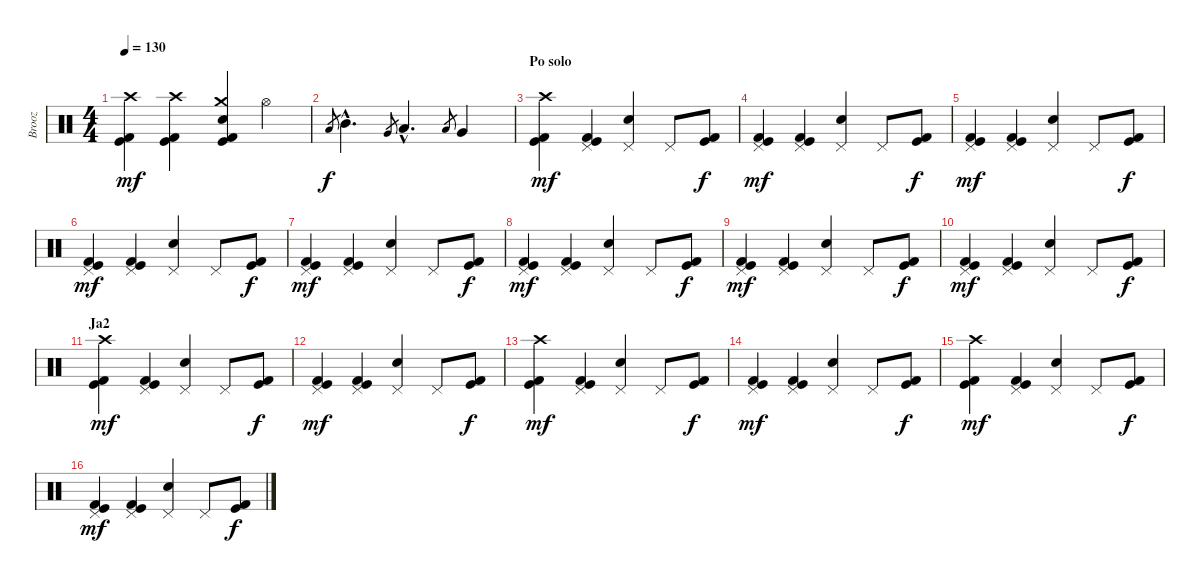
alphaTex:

\track ("Brooz" "Brooz") {instrument percussion}
\staff {score}
\articulation defaults
\ts (4 4)
\tempo 130
\clef neutral
\ks c
("Kick (hit) 2" "Kick (hit)" "Crash high (hit)").4{dy mf} ("Kick (hit) 2" "Kick (hit)" "Crash high (hit)").4 ("Kick (hit) 2" "Kick (hit)" "Crash medium (hit)" "Snare (hit) 2").4 "Hi-Hat (open)".4 |
"Low Tom (hit)".8{gr dy f} "Mid Tom (hit)"{hac}.4{d} "Very Low Tom (hit)".8{gr} "Low Tom (hit)"{hac}.4{d} "Low Floor Tom (hit)".8{gr} "Very Low Tom (hit)".4 |
\section ("" "Po solo")
("Kick (hit) 2" "Kick (hit)" "Crash high (hit)").4{dy mf} ("Pedal Hi-Hat (hit)" "Kick (hit) 2" "Kick (hit)").4 ("Pedal Hi-Hat (hit)" "Snare (hit) 2").4 "Pedal Hi-Hat (hit)".8 ("Kick (hit) 2" "Kick (hit)").8{dy f} |
("Kick (hit) 2" "Kick (hit)" "Pedal Hi-Hat (hit)").4{dy mf} ("Pedal Hi-Hat (hit)" "Kick (hit) 2" "Kick (hit)").4 ("Snare (hit) 2" "Pedal Hi-Hat (hit)").4 "Pedal Hi-Hat (hit)".8 ("Kick (hit) 2" "Kick (hit)").8{dy f} |
("Kick (hit) 2" "Kick (hit)" "Pedal Hi-Hat (hit)").4{dy mf} ("Pedal Hi-Hat (hit)" "Kick (hit) 2" "Kick (hit)").4 ("Pedal Hi-Hat (hit)" "Snare (hit) 2").4 "Pedal Hi-Hat (hit)".8 ("Kick (hit) 2" "Kick (hit)").8{dy f} |
("Kick (hit) 2" "Kick (hit)" "Pedal Hi-Hat (hit)").4{dy mf} ("Pedal Hi-Hat (hit)" "Kick (hit) 2" "Kick (hit)").4 ("Snare (hit) 2" "Pedal Hi-Hat (hit)").4 "Pedal Hi-Hat (hit)".8 ("Kick (hit) 2" "Kick (hit)").8{dy f} |
("Kick (hit) 2" "Kick (hit)" "Pedal Hi-Hat (hit)").4{dy mf} ("Pedal Hi-Hat (hit)" "Kick (hit) 2" "Kick (hit)").4 ("Pedal Hi-Hat (hit)" "Snare (hit) 2").4 "Pedal Hi-Hat (hit)".8 ("Kick (hit) 2" "Kick (hit)").8{dy f} |
("Kick (hit) 2" "Kick (hit)" "Pedal Hi-Hat (hit)").4{dy mf} ("Pedal Hi-Hat (hit)" "Kick (hit) 2" "Kick (hit)").4 ("Snare (hit) 2" "Pedal Hi-Hat (hit)").4 "Pedal Hi-Hat (hit)".8 ("Kick (hit) 2" "Kick (hit)").8{dy f} |
("Kick (hit) 2" "Kick (hit)" "Pedal Hi-Hat (hit)").4{dy mf} ("Pedal Hi-Hat (hit)" "Kick (hit) 2" "Kick (hit)").4 ("Pedal Hi-Hat (hit)" "Snare (hit) 2").4 "Pedal Hi-Hat (hit)".8 ("Kick (hit) 2" "Kick (hit)").8{dy f} |
("Kick (hit) 2" "Kick (hit)" "Pedal Hi-Hat (hit)").4{dy mf} ("Pedal Hi-Hat (hit)" "Kick (hit) 2" "Kick (hit)").4 ("Snare (hit) 2" "Pedal Hi-Hat (hit)").4 "Pedal Hi-Hat (hit)".8 ("Kick (hit) 2" "Kick (hit)").8{dy f} |
\section ("" "Ja2")
("Kick (hit) 2" "Kick (hit)" "Crash high (hit)").4{dy mf} ("Pedal Hi-Hat (hit)" "Kick (hit) 2" "Kick (hit)").4 ("Pedal Hi-Hat (hit)" "Snare (hit) 2").4 "Pedal Hi-Hat (hit)".8 ("Kick (hit) 2" "Kick (hit)").8{dy f} |
("Kick (hit) 2" "Kick (hit)" "Pedal Hi-Hat (hit)").4{dy mf} ("Pedal Hi-Hat (hit)" "Kick (hit) 2" "Kick (hit)").4 ("Snare (hit) 2" "Pedal Hi-Hat (hit)").4 "Pedal Hi-Hat (hit)".8 ("Kick (hit) 2" "Kick (hit)").8{dy f} |
("Kick (hit) 2" "Kick (hit)" "Crash high (hit)").4{dy mf} ("Pedal Hi-Hat (hit)" "Kick (hit) 2" "Kick (hit)").4 ("Pedal Hi-Hat (hit)" "Snare (hit) 2").4 "Pedal Hi-Hat (hit)".8 ("Kick (hit) 2" "Kick (hit)").8{dy f} |
("Kick (hit) 2" "Kick (hit)" "Pedal Hi-Hat (hit)").4{dy mf} ("Pedal Hi-Hat (hit)" "Kick (hit) 2" "Kick (hit)").4 ("Snare (hit) 2" "Pedal Hi-Hat (hit)").4 "Pedal Hi-Hat (hit)".8 ("Kick (hit) 2" "Kick (hit)").8{dy f} |
("Kick (hit) 2" "Kick (hit)" "Crash high (hit)").4{dy mf} ("Pedal Hi-Hat (hit)" "Kick (hit) 2" "Kick (hit)").4 ("Pedal Hi-Hat (hit)" "Snare (hit) 2").4 "Pedal Hi-Hat (hit)".8 ("Kick (hit) 2" "Kick (hit)").8{dy f} |
("Kick (hit) 2" "Kick (hit)" "Pedal Hi-Hat (hit)").4{dy mf} ("Pedal Hi-Hat (hit)" "Kick (hit) 2" "Kick (hit)").4 ("Snare (hit) 2" "Pedal Hi-Hat (hit)").4 "Pedal Hi-Hat (hit)".8 ("Kick (hit) 2" "Kick (hit)").8{dy f}
